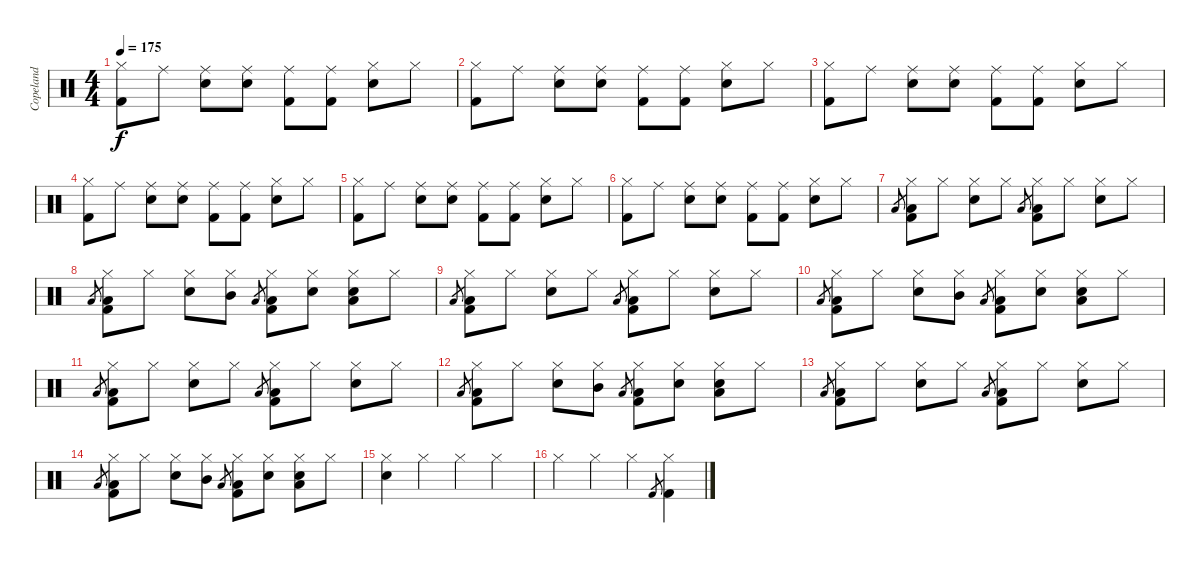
\track ("Copeland" "Copeland") {instrument percussion}
\staff {score}
\articulation defaults
\ts (4 4)
\tempo 175
\clef neutral
\ks c
("Hi-Hat (closed)" "Kick (hit) 2").8{dy f} "Ride (middle)".8 ("Ride (middle)" "Snare (hit) 2").8 ("Ride (middle)" "Snare (hit) 2").8 ("Ride (middle)" "Kick (hit) 2").8 ("Ride (middle)" "Kick (hit) 2").8 ("Hi-Hat (closed)" "Snare (hit) 2").8 "Hi-Hat (closed)".8 |
("Hi-Hat (closed)" "Kick (hit) 2").8 "Ride (middle)".8 ("Ride (middle)" "Snare (hit) 2").8 ("Ride (middle)" "Snare (hit) 2").8 ("Ride (middle)" "Kick (hit) 2").8 ("Ride (middle)" "Kick (hit) 2").8 ("Hi-Hat (closed)" "Snare (hit) 2").8 "Hi-Hat (closed)".8 |
("Hi-Hat (closed)" "Kick (hit) 2").8 "Ride (middle)".8 ("Ride (middle)" "Snare (hit) 2").8 ("Ride (middle)" "Snare (hit) 2").8 ("Ride (middle)" "Kick (hit) 2").8 ("Ride (middle)" "Kick (hit) 2").8 ("Hi-Hat (closed)" "Snare (hit) 2").8 "Hi-Hat (closed)".8 |
("Hi-Hat (closed)" "Kick (hit) 2").8 "Ride (middle)".8 ("Ride (middle)" "Snare (hit) 2").8 ("Ride (middle)" "Snare (hit) 2").8 ("Ride (middle)" "Kick (hit) 2").8 ("Ride (middle)" "Kick (hit) 2").8 ("Hi-Hat (closed)" "Snare (hit) 2").8 "Hi-Hat (closed)".8 |
("Hi-Hat (closed)" "Kick (hit) 2").8 "Ride (middle)".8 ("Ride (middle)" "Snare (hit) 2").8 ("Ride (middle)" "Snare (hit) 2").8 ("Ride (middle)" "Kick (hit) 2").8 ("Ride (middle)" "Kick (hit) 2").8 ("Hi-Hat (closed)" "Snare (hit) 2").8 "Hi-Hat (closed)".8 |
("Hi-Hat (closed)" "Kick (hit) 2").8 "Ride (middle)".8 ("Ride (middle)" "Snare (hit) 2").8 ("Ride (middle)" "Snare (hit) 2").8 ("Ride (middle)" "Kick (hit) 2").8 ("Ride (middle)" "Kick (hit) 2").8 ("Hi-Hat (closed)" "Snare (hit) 2").8 "Hi-Hat (closed)".8 |
"Low Tom (hit)".8{gr} ("Hi-Hat (closed)" "Low Tom (hit)" "Kick (hit) 2").8 "Hi-Hat (closed)".8 ("Hi-Hat (closed)" "Snare (hit) 2").8 "Hi-Hat (closed)".8 "Low Tom (hit)".8{gr} ("Hi-Hat (closed)" "Low Tom (hit)" "Kick (hit) 2").8 "Hi-Hat (closed)".8 ("Hi-Hat (closed)" "Snare (hit) 2").8 "Hi-Hat (closed)".8 |
"Low Tom (hit)".8{gr} ("Hi-Hat (closed)" "Low Tom (hit)" "Kick (hit) 2").8 "Hi-Hat (closed)".8 ("Hi-Hat (closed)" "Snare (hit) 2").8 ("Hi-Hat (closed)" "Mid Tom (hit)").8 "Low Tom (hit)".8{gr} ("Hi-Hat (closed)" "Low Tom (hit)" "Kick (hit) 2").8 ("Hi-Hat (closed)" "Snare (hit) 2").8 ("Hi-Hat (closed)" "Snare (hit) 2" "Low Tom (hit)").8 "Hi-Hat (closed)".8 |
"Low Tom (hit)".8{gr} ("Hi-Hat (closed)" "Low Tom (hit)" "Kick (hit) 2").8 "Hi-Hat (closed)".8 ("Hi-Hat (closed)" "Snare (hit) 2").8 "Hi-Hat (closed)".8 "Low Tom (hit)".8{gr} ("Hi-Hat (closed)" "Low Tom (hit)" "Kick (hit) 2").8 "Hi-Hat (closed)".8 ("Hi-Hat (closed)" "Snare (hit) 2").8 "Hi-Hat (closed)".8 |
"Low Tom (hit)".8{gr} ("Hi-Hat (closed)" "Low Tom (hit)" "Kick (hit) 2").8 "Hi-Hat (closed)".8 ("Hi-Hat (closed)" "Snare (hit) 2").8 ("Hi-Hat (closed)" "Mid Tom (hit)").8 "Low Tom (hit)".8{gr} ("Hi-Hat (closed)" "Low Tom (hit)" "Kick (hit) 2").8 ("Hi-Hat (closed)" "Snare (hit) 2").8 ("Hi-Hat (closed)" "Snare (hit) 2" "Low Tom (hit)").8 "Hi-Hat (closed)".8 |
"Low Tom (hit)".8{gr} ("Hi-Hat (closed)" "Low Tom (hit)" "Kick (hit) 2").8 "Hi-Hat (closed)".8 ("Hi-Hat (closed)" "Snare (hit) 2").8 "Hi-Hat (closed)".8 "Low Tom (hit)".8{gr} ("Hi-Hat (closed)" "Low Tom (hit)" "Kick (hit) 2").8 "Hi-Hat (closed)".8 ("Hi-Hat (closed)" "Snare (hit) 2").8 "Hi-Hat (closed)".8 |
"Low Tom (hit)".8{gr} ("Hi-Hat (closed)" "Low Tom (hit)" "Kick (hit) 2").8 "Hi-Hat (closed)".8 ("Hi-Hat (closed)" "Snare (hit) 2").8 ("Hi-Hat (closed)" "Mid Tom (hit)").8 "Low Tom (hit)".8{gr} ("Hi-Hat (closed)" "Low Tom (hit)" "Kick (hit) 2").8 ("Hi-Hat (closed)" "Snare (hit) 2").8 ("Hi-Hat (closed)" "Snare (hit) 2" "Low Tom (hit)").8 "Hi-Hat (closed)".8 |
"Low Tom (hit)".8{gr} ("Hi-Hat (closed)" "Low Tom (hit)" "Kick (hit) 2").8 "Hi-Hat (closed)".8 ("Hi-Hat (closed)" "Snare (hit) 2").8 "Hi-Hat (closed)".8 "Low Tom (hit)".8{gr} ("Hi-Hat (closed)" "Low Tom (hit)" "Kick (hit) 2").8 "Hi-Hat (closed)".8 ("Hi-Hat (closed)" "Snare (hit) 2").8 "Hi-Hat (closed)".8 |
"Low Tom (hit)".8{gr} ("Hi-Hat (closed)" "Low Tom (hit)" "Kick (hit) 2").8 "Hi-Hat (closed)".8 ("Hi-Hat (closed)" "Snare (hit) 2").8 ("Hi-Hat (closed)" "Mid Tom (hit)").8 "Low Tom (hit)".8{gr} ("Hi-Hat (closed)" "Low Tom (hit)" "Kick (hit) 2").8 ("Hi-Hat (closed)" "Snare (hit) 2").8 ("Hi-Hat (closed)" "Snare (hit) 2" "Low Tom (hit)").8 "Hi-Hat (closed)".8 |
("Hi-Hat (closed)" "Snare (hit) 2").4 "Hi-Hat (closed)".4 "Hi-Hat (closed)".4 "Hi-Hat (closed)".4 |
"Hi-Hat (closed)".4 "Hi-Hat (closed)".4 "Hi-Hat (closed)".4 "Kick (hit) 2".8{gr} ("Hi-Hat (closed)" "Kick (hit) 2").4
